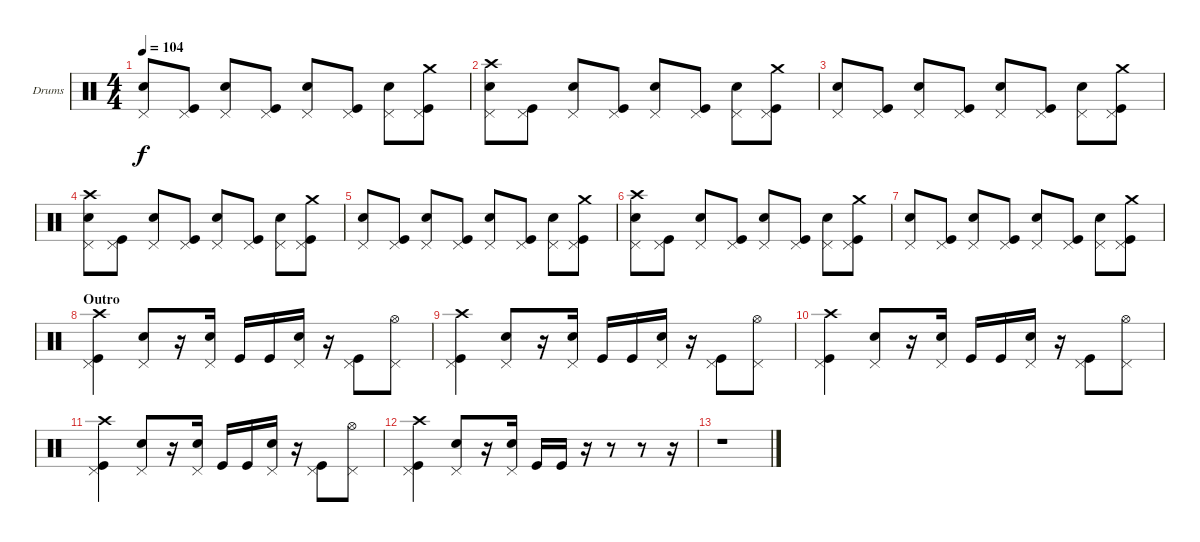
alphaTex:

\defaultSystemsLayout 4
\bracketExtendMode groupsimilarinstruments
\firstSystemTrackNameOrientation horizontal
\otherSystemsTrackNameOrientation horizontal
\track ("Drumkit" "Drums") {instrument percussion}
\staff {score}
\articulation defaults
\ts (4 4)
\tempo 104
\clef neutral
\ks c
("Pedal Hi-Hat (hit)" "Snare (hit) 2").8{dy f} ("Pedal Hi-Hat (hit)" "Kick (hit)").8 ("Pedal Hi-Hat (hit)" "Snare (hit) 2").8 ("Pedal Hi-Hat (hit)" "Kick (hit)").8 ("Pedal Hi-Hat (hit)" "Snare (hit) 2").8 ("Pedal Hi-Hat (hit)" "Kick (hit)").8 ("Pedal Hi-Hat (hit)" "Snare (hit) 2").8 ("Pedal Hi-Hat (hit)" "Kick (hit)" "Crash medium (hit)").8 |
("Pedal Hi-Hat (hit)" "Snare (hit) 2" "Crash high (hit)").8 ("Pedal Hi-Hat (hit)" "Kick (hit)").8 ("Pedal Hi-Hat (hit)" "Snare (hit) 2").8 ("Pedal Hi-Hat (hit)" "Kick (hit)").8 ("Pedal Hi-Hat (hit)" "Snare (hit) 2").8 ("Pedal Hi-Hat (hit)" "Kick (hit)").8 ("Pedal Hi-Hat (hit)" "Snare (hit) 2").8 ("Pedal Hi-Hat (hit)" "Kick (hit)" "Crash medium (hit)").8 |
("Pedal Hi-Hat (hit)" "Snare (hit) 2").8 ("Pedal Hi-Hat (hit)" "Kick (hit)").8 ("Pedal Hi-Hat (hit)" "Snare (hit) 2").8 ("Pedal Hi-Hat (hit)" "Kick (hit)").8 ("Pedal Hi-Hat (hit)" "Snare (hit) 2").8 ("Pedal Hi-Hat (hit)" "Kick (hit)").8 ("Pedal Hi-Hat (hit)" "Snare (hit) 2").8 ("Pedal Hi-Hat (hit)" "Kick (hit)" "Crash medium (hit)").8 |
("Pedal Hi-Hat (hit)" "Snare (hit) 2" "Crash high (hit)").8 ("Pedal Hi-Hat (hit)" "Kick (hit)").8 ("Pedal Hi-Hat (hit)" "Snare (hit) 2").8 ("Pedal Hi-Hat (hit)" "Kick (hit)").8 ("Pedal Hi-Hat (hit)" "Snare (hit) 2").8 ("Pedal Hi-Hat (hit)" "Kick (hit)").8 ("Pedal Hi-Hat (hit)" "Snare (hit) 2").8 ("Pedal Hi-Hat (hit)" "Kick (hit)" "Crash medium (hit)").8 |
("Pedal Hi-Hat (hit)" "Snare (hit) 2").8 ("Pedal Hi-Hat (hit)" "Kick (hit)").8 ("Pedal Hi-Hat (hit)" "Snare (hit) 2").8 ("Pedal Hi-Hat (hit)" "Kick (hit)").8 ("Pedal Hi-Hat (hit)" "Snare (hit) 2").8 ("Pedal Hi-Hat (hit)" "Kick (hit)").8 ("Pedal Hi-Hat (hit)" "Snare (hit) 2").8 ("Pedal Hi-Hat (hit)" "Kick (hit)" "Crash medium (hit)").8 |
("Pedal Hi-Hat (hit)" "Snare (hit) 2" "Crash high (hit)").8 ("Pedal Hi-Hat (hit)" "Kick (hit)").8 ("Pedal Hi-Hat (hit)" "Snare (hit) 2").8 ("Pedal Hi-Hat (hit)" "Kick (hit)").8 ("Pedal Hi-Hat (hit)" "Snare (hit) 2").8 ("Pedal Hi-Hat (hit)" "Kick (hit)").8 ("Pedal Hi-Hat (hit)" "Snare (hit) 2").8 ("Pedal Hi-Hat (hit)" "Kick (hit)" "Crash medium (hit)").8 |
("Pedal Hi-Hat (hit)" "Snare (hit) 2").8 ("Pedal Hi-Hat (hit)" "Kick (hit)").8 ("Pedal Hi-Hat (hit)" "Snare (hit) 2").8 ("Pedal Hi-Hat (hit)" "Kick (hit)").8 ("Pedal Hi-Hat (hit)" "Snare (hit) 2").8 ("Pedal Hi-Hat (hit)" "Kick (hit)").8 ("Pedal Hi-Hat (hit)" "Snare (hit) 2").8 ("Pedal Hi-Hat (hit)" "Kick (hit)" "Crash medium (hit)").8 |
\section ("" "Outro")
("Pedal Hi-Hat (hit)" "Crash high (hit)" "Kick (hit)").4 ("Pedal Hi-Hat (hit)" "Snare (hit) 2").8 r.16 ("Pedal Hi-Hat (hit)" "Snare (hit) 2").16 "Kick (hit)".16 "Kick (hit)".16 ("Pedal Hi-Hat (hit)" "Snare (hit) 2").16 r.16 ("Pedal Hi-Hat (hit)" "Kick (hit)").8 ("Pedal Hi-Hat (hit)" "Hi-Hat (open)").8 |
("Pedal Hi-Hat (hit)" "Crash high (hit)" "Kick (hit)").4 ("Pedal Hi-Hat (hit)" "Snare (hit) 2").8 r.16 ("Pedal Hi-Hat (hit)" "Snare (hit) 2").16 "Kick (hit)".16 "Kick (hit)".16 ("Pedal Hi-Hat (hit)" "Snare (hit) 2").16 r.16 ("Pedal Hi-Hat (hit)" "Kick (hit)").8 ("Pedal Hi-Hat (hit)" "Hi-Hat (open)").8 |
("Pedal Hi-Hat (hit)" "Crash high (hit)" "Kick (hit)").4 ("Pedal Hi-Hat (hit)" "Snare (hit) 2").8 r.16 ("Pedal Hi-Hat (hit)" "Snare (hit) 2").16 "Kick (hit)".16 "Kick (hit)".16 ("Pedal Hi-Hat (hit)" "Snare (hit) 2").16 r.16 ("Pedal Hi-Hat (hit)" "Kick (hit)").8 ("Pedal Hi-Hat (hit)" "Hi-Hat (open)").8 |
("Pedal Hi-Hat (hit)" "Crash high (hit)" "Kick (hit)").4 ("Pedal Hi-Hat (hit)" "Snare (hit) 2").8 r.16 ("Pedal Hi-Hat (hit)" "Snare (hit) 2").16 "Kick (hit)".16 "Kick (hit)".16 ("Pedal Hi-Hat (hit)" "Snare (hit) 2").16 r.16 ("Pedal Hi-Hat (hit)" "Kick (hit)").8 ("Pedal Hi-Hat (hit)" "Hi-Hat (open)").8 |
("Pedal Hi-Hat (hit)" "Crash high (hit)" "Kick (hit)").4 ("Pedal Hi-Hat (hit)" "Snare (hit) 2").8 r.16 ("Pedal Hi-Hat (hit)" "Snare (hit) 2").16 "Kick (hit)".16 "Kick (hit)".16 r.16 r.8 r.8 r.16 |
r.1
